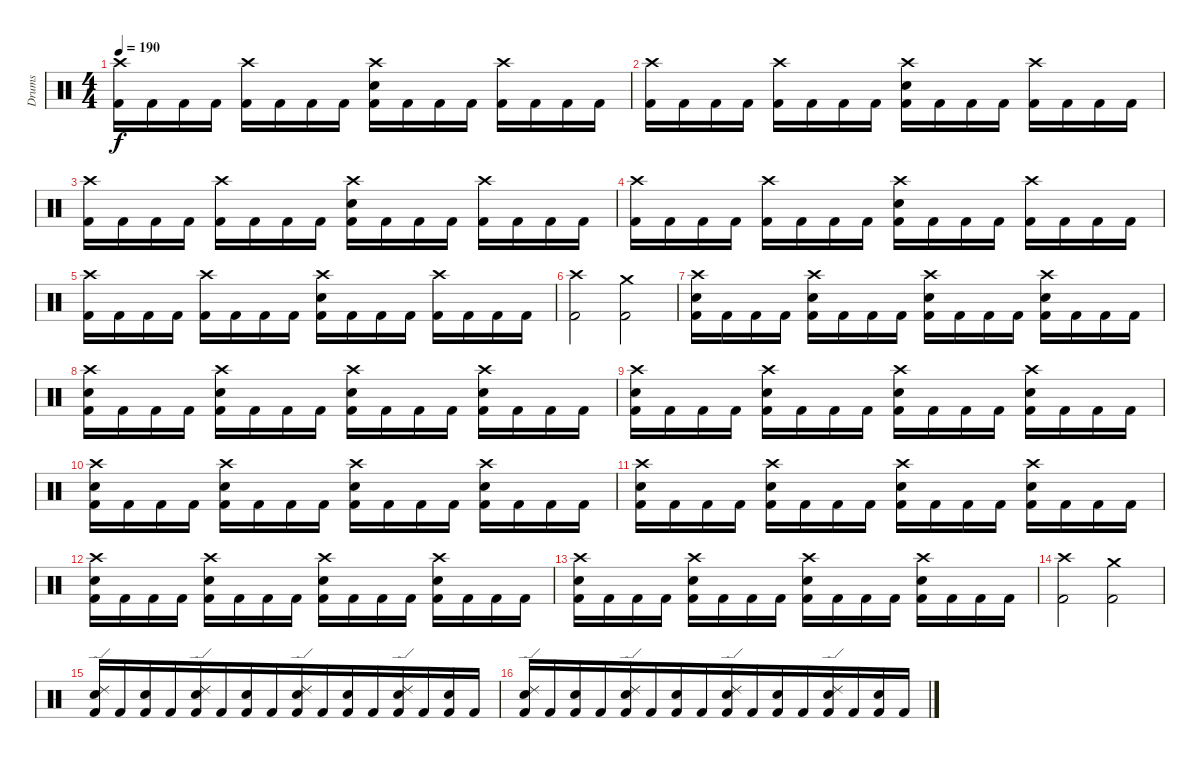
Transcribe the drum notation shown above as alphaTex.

\track ("Drums" "Drums") {instrument percussion}
\staff {score}
\articulation defaults
\ts (4 4)
\tempo 190
\clef neutral
\ks c
("Crash high (hit)" "Kick (hit) 2").16{dy f} "Kick (hit) 2".16 "Kick (hit) 2".16 "Kick (hit) 2".16 ("Crash high (hit)" "Kick (hit) 2").16 "Kick (hit) 2".16 "Kick (hit) 2".16 "Kick (hit) 2".16 ("Crash high (hit)" "Electric Snare (hit)" "Kick (hit) 2").16 "Kick (hit) 2".16 "Kick (hit) 2".16 "Kick (hit) 2".16 ("Crash high (hit)" "Kick (hit) 2").16 "Kick (hit) 2".16 "Kick (hit) 2".16 "Kick (hit) 2".16 |
("Crash high (hit)" "Kick (hit) 2").16 "Kick (hit) 2".16 "Kick (hit) 2".16 "Kick (hit) 2".16 ("Crash high (hit)" "Kick (hit) 2").16 "Kick (hit) 2".16 "Kick (hit) 2".16 "Kick (hit) 2".16 ("Crash high (hit)" "Electric Snare (hit)" "Kick (hit) 2").16 "Kick (hit) 2".16 "Kick (hit) 2".16 "Kick (hit) 2".16 ("Crash high (hit)" "Kick (hit) 2").16 "Kick (hit) 2".16 "Kick (hit) 2".16 "Kick (hit) 2".16 |
("Crash high (hit)" "Kick (hit) 2").16 "Kick (hit) 2".16 "Kick (hit) 2".16 "Kick (hit) 2".16 ("Crash high (hit)" "Kick (hit) 2").16 "Kick (hit) 2".16 "Kick (hit) 2".16 "Kick (hit) 2".16 ("Crash high (hit)" "Electric Snare (hit)" "Kick (hit) 2").16 "Kick (hit) 2".16 "Kick (hit) 2".16 "Kick (hit) 2".16 ("Crash high (hit)" "Kick (hit) 2").16 "Kick (hit) 2".16 "Kick (hit) 2".16 "Kick (hit) 2".16 |
("Crash high (hit)" "Kick (hit) 2").16 "Kick (hit) 2".16 "Kick (hit) 2".16 "Kick (hit) 2".16 ("Crash high (hit)" "Kick (hit) 2").16 "Kick (hit) 2".16 "Kick (hit) 2".16 "Kick (hit) 2".16 ("Crash high (hit)" "Electric Snare (hit)" "Kick (hit) 2").16 "Kick (hit) 2".16 "Kick (hit) 2".16 "Kick (hit) 2".16 ("Crash high (hit)" "Kick (hit) 2").16 "Kick (hit) 2".16 "Kick (hit) 2".16 "Kick (hit) 2".16 |
("Crash high (hit)" "Kick (hit) 2").16 "Kick (hit) 2".16 "Kick (hit) 2".16 "Kick (hit) 2".16 ("Crash high (hit)" "Kick (hit) 2").16 "Kick (hit) 2".16 "Kick (hit) 2".16 "Kick (hit) 2".16 ("Crash high (hit)" "Electric Snare (hit)" "Kick (hit) 2").16 "Kick (hit) 2".16 "Kick (hit) 2".16 "Kick (hit) 2".16 ("Crash high (hit)" "Kick (hit) 2").16 "Kick (hit) 2".16 "Kick (hit) 2".16 "Kick (hit) 2".16 |
("Crash high (hit)" "Kick (hit) 2").2 ("Crash medium (hit)" "Kick (hit) 2").2 |
("Crash high (hit)" "Electric Snare (hit)" "Kick (hit) 2").16 "Kick (hit) 2".16 "Kick (hit) 2".16 "Kick (hit) 2".16 ("Crash high (hit)" "Electric Snare (hit)" "Kick (hit) 2").16 "Kick (hit) 2".16 "Kick (hit) 2".16 "Kick (hit) 2".16 ("Crash high (hit)" "Electric Snare (hit)" "Kick (hit) 2").16 "Kick (hit) 2".16 "Kick (hit) 2".16 "Kick (hit) 2".16 ("Crash high (hit)" "Electric Snare (hit)" "Kick (hit) 2").16 "Kick (hit) 2".16 "Kick (hit) 2".16 "Kick (hit) 2".16 |
("Crash high (hit)" "Electric Snare (hit)" "Kick (hit) 2").16 "Kick (hit) 2".16 "Kick (hit) 2".16 "Kick (hit) 2".16 ("Crash high (hit)" "Electric Snare (hit)" "Kick (hit) 2").16 "Kick (hit) 2".16 "Kick (hit) 2".16 "Kick (hit) 2".16 ("Crash high (hit)" "Electric Snare (hit)" "Kick (hit) 2").16 "Kick (hit) 2".16 "Kick (hit) 2".16 "Kick (hit) 2".16 ("Crash high (hit)" "Electric Snare (hit)" "Kick (hit) 2").16 "Kick (hit) 2".16 "Kick (hit) 2".16 "Kick (hit) 2".16 |
("Crash high (hit)" "Electric Snare (hit)" "Kick (hit) 2").16 "Kick (hit) 2".16 "Kick (hit) 2".16 "Kick (hit) 2".16 ("Crash high (hit)" "Electric Snare (hit)" "Kick (hit) 2").16 "Kick (hit) 2".16 "Kick (hit) 2".16 "Kick (hit) 2".16 ("Crash high (hit)" "Electric Snare (hit)" "Kick (hit) 2").16 "Kick (hit) 2".16 "Kick (hit) 2".16 "Kick (hit) 2".16 ("Crash high (hit)" "Electric Snare (hit)" "Kick (hit) 2").16 "Kick (hit) 2".16 "Kick (hit) 2".16 "Kick (hit) 2".16 |
("Crash high (hit)" "Electric Snare (hit)" "Kick (hit) 2").16 "Kick (hit) 2".16 "Kick (hit) 2".16 "Kick (hit) 2".16 ("Crash high (hit)" "Electric Snare (hit)" "Kick (hit) 2").16 "Kick (hit) 2".16 "Kick (hit) 2".16 "Kick (hit) 2".16 ("Crash high (hit)" "Electric Snare (hit)" "Kick (hit) 2").16 "Kick (hit) 2".16 "Kick (hit) 2".16 "Kick (hit) 2".16 ("Crash high (hit)" "Electric Snare (hit)" "Kick (hit) 2").16 "Kick (hit) 2".16 "Kick (hit) 2".16 "Kick (hit) 2".16 |
("Crash high (hit)" "Electric Snare (hit)" "Kick (hit) 2").16 "Kick (hit) 2".16 "Kick (hit) 2".16 "Kick (hit) 2".16 ("Crash high (hit)" "Electric Snare (hit)" "Kick (hit) 2").16 "Kick (hit) 2".16 "Kick (hit) 2".16 "Kick (hit) 2".16 ("Crash high (hit)" "Electric Snare (hit)" "Kick (hit) 2").16 "Kick (hit) 2".16 "Kick (hit) 2".16 "Kick (hit) 2".16 ("Crash high (hit)" "Electric Snare (hit)" "Kick (hit) 2").16 "Kick (hit) 2".16 "Kick (hit) 2".16 "Kick (hit) 2".16 |
("Crash high (hit)" "Electric Snare (hit)" "Kick (hit) 2").16 "Kick (hit) 2".16 "Kick (hit) 2".16 "Kick (hit) 2".16 ("Crash high (hit)" "Electric Snare (hit)" "Kick (hit) 2").16 "Kick (hit) 2".16 "Kick (hit) 2".16 "Kick (hit) 2".16 ("Crash high (hit)" "Electric Snare (hit)" "Kick (hit) 2").16 "Kick (hit) 2".16 "Kick (hit) 2".16 "Kick (hit) 2".16 ("Crash high (hit)" "Electric Snare (hit)" "Kick (hit) 2").16 "Kick (hit) 2".16 "Kick (hit) 2".16 "Kick (hit) 2".16 |
("Crash high (hit)" "Electric Snare (hit)" "Kick (hit) 2").16 "Kick (hit) 2".16 "Kick (hit) 2".16 "Kick (hit) 2".16 ("Crash high (hit)" "Electric Snare (hit)" "Kick (hit) 2").16 "Kick (hit) 2".16 "Kick (hit) 2".16 "Kick (hit) 2".16 ("Crash high (hit)" "Electric Snare (hit)" "Kick (hit) 2").16 "Kick (hit) 2".16 "Kick (hit) 2".16 "Kick (hit) 2".16 ("Crash high (hit)" "Electric Snare (hit)" "Kick (hit) 2").16 "Kick (hit) 2".16 "Kick (hit) 2".16 "Kick (hit) 2".16 |
("Crash high (hit)" "Kick (hit) 2").2{beam merge} ("Crash medium (hit)" "Kick (hit) 2").2 |
("Ride (edge) 2" "Electric Snare (hit)" "Kick (hit) 2").16{beam merge} "Kick (hit) 2".16{beam merge} ("Electric Snare (hit)" "Kick (hit) 2").16{beam merge} "Kick (hit) 2".16{beam merge} ("Ride (edge) 2" "Electric Snare (hit)" "Kick (hit) 2").16{beam merge} "Kick (hit) 2".16{beam merge} ("Electric Snare (hit)" "Kick (hit) 2").16{beam merge} "Kick (hit) 2".16{beam merge} ("Ride (edge) 2" "Electric Snare (hit)" "Kick (hit) 2").16{beam merge} "Kick (hit) 2".16{beam merge} ("Electric Snare (hit)" "Kick (hit) 2").16{beam merge} "Kick (hit) 2".16{beam merge} ("Ride (edge) 2" "Electric Snare (hit)" "Kick (hit) 2").16{beam merge} "Kick (hit) 2".16{beam merge} ("Electric Snare (hit)" "Kick (hit) 2").16{beam merge} "Kick (hit) 2".16 |
("Ride (edge) 2" "Electric Snare (hit)" "Kick (hit) 2").16{beam merge} "Kick (hit) 2".16{beam merge} ("Electric Snare (hit)" "Kick (hit) 2").16{beam merge} "Kick (hit) 2".16{beam merge} ("Ride (edge) 2" "Electric Snare (hit)" "Kick (hit) 2").16{beam merge} "Kick (hit) 2".16{beam merge} ("Electric Snare (hit)" "Kick (hit) 2").16{beam merge} "Kick (hit) 2".16{beam merge} ("Ride (edge) 2" "Electric Snare (hit)" "Kick (hit) 2").16{beam merge} "Kick (hit) 2".16{beam merge} ("Electric Snare (hit)" "Kick (hit) 2").16{beam merge} "Kick (hit) 2".16{beam merge} ("Ride (edge) 2" "Electric Snare (hit)" "Kick (hit) 2").16{beam merge} "Kick (hit) 2".16{beam merge} ("Electric Snare (hit)" "Kick (hit) 2").16{beam merge} "Kick (hit) 2".16
